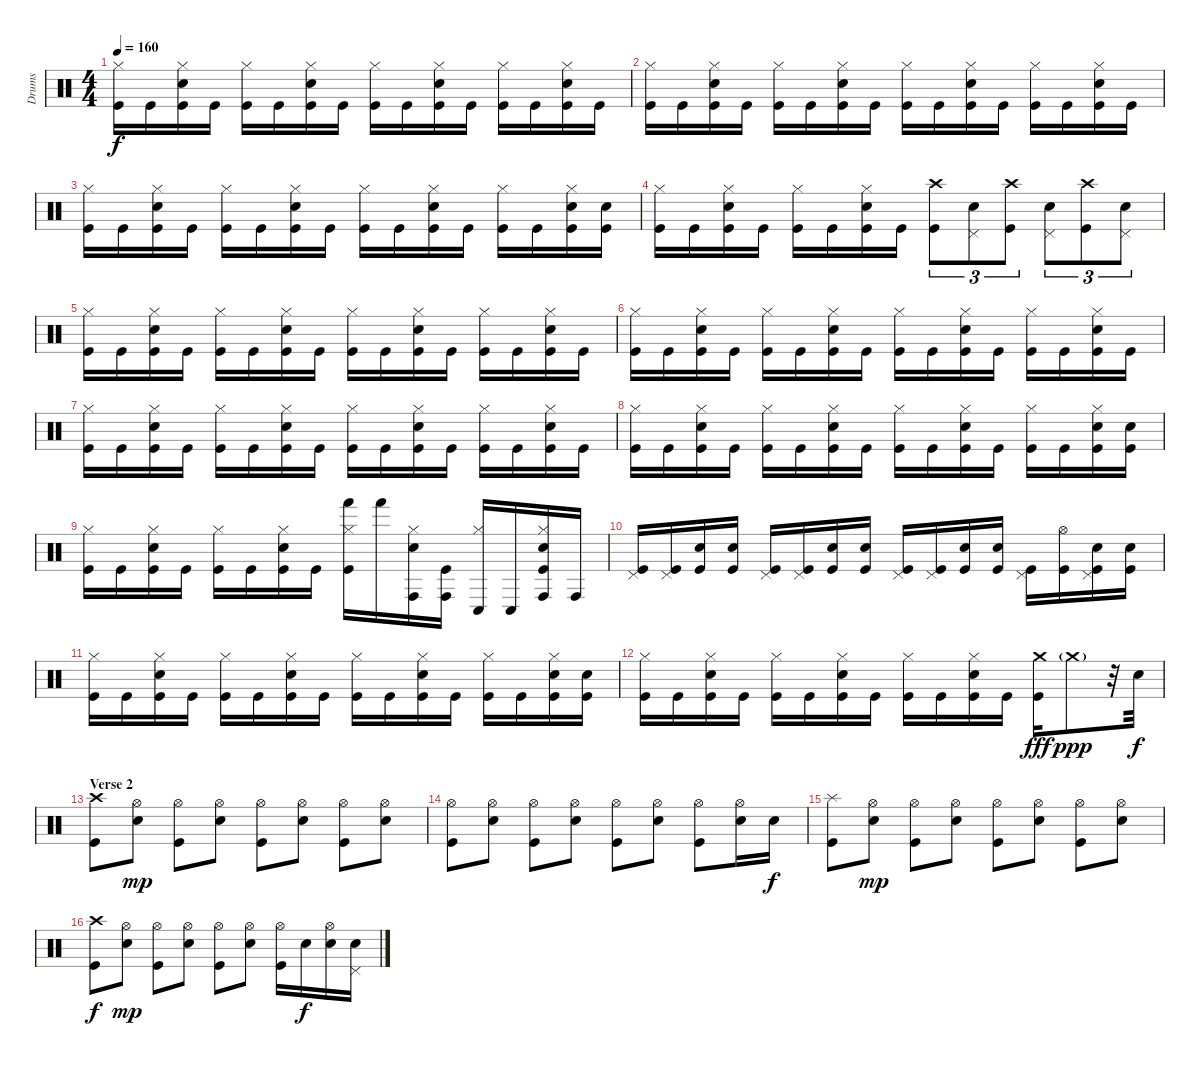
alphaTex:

\track ("Drums" "Drums") {instrument percussion}
\staff {score}
\articulation defaults
\ts (4 4)
\tempo 160
\clef neutral
\ks c
("Hi-Hat (closed)" "Kick (hit)").16{dy f} "Kick (hit)".16 ("Hi-Hat (closed)" "Electric Snare (hit)" "Kick (hit)").16 "Kick (hit)".16 ("Hi-Hat (closed)" "Kick (hit)").16 "Kick (hit)".16 ("Hi-Hat (closed)" "Electric Snare (hit)" "Kick (hit)").16 "Kick (hit)".16 ("Hi-Hat (closed)" "Kick (hit)").16 "Kick (hit)".16 ("Hi-Hat (closed)" "Electric Snare (hit)" "Kick (hit)").16 "Kick (hit)".16 ("Hi-Hat (closed)" "Kick (hit)").16 "Kick (hit)".16 ("Hi-Hat (closed)" "Electric Snare (hit)" "Kick (hit)").16 "Kick (hit)".16 |
("Hi-Hat (closed)" "Kick (hit)").16 "Kick (hit)".16 ("Hi-Hat (closed)" "Electric Snare (hit)" "Kick (hit)").16 "Kick (hit)".16 ("Hi-Hat (closed)" "Kick (hit)").16 "Kick (hit)".16 ("Hi-Hat (closed)" "Electric Snare (hit)" "Kick (hit)").16 "Kick (hit)".16 ("Hi-Hat (closed)" "Kick (hit)").16 "Kick (hit)".16 ("Hi-Hat (closed)" "Electric Snare (hit)" "Kick (hit)").16 "Kick (hit)".16 ("Hi-Hat (closed)" "Kick (hit)").16 "Kick (hit)".16 ("Hi-Hat (closed)" "Electric Snare (hit)" "Kick (hit)").16 "Kick (hit)".16 |
("Hi-Hat (closed)" "Kick (hit)").16 "Kick (hit)".16 ("Hi-Hat (closed)" "Electric Snare (hit)" "Kick (hit)").16 "Kick (hit)".16 ("Hi-Hat (closed)" "Kick (hit)").16 "Kick (hit)".16 ("Hi-Hat (closed)" "Electric Snare (hit)" "Kick (hit)").16 "Kick (hit)".16 ("Hi-Hat (closed)" "Kick (hit)").16 "Kick (hit)".16 ("Hi-Hat (closed)" "Electric Snare (hit)" "Kick (hit)").16 "Kick (hit)".16 ("Hi-Hat (closed)" "Kick (hit)").16 "Kick (hit)".16 ("Hi-Hat (closed)" "Electric Snare (hit)" "Kick (hit)").16 ("Electric Snare (hit)" "Kick (hit)").16 |
("Hi-Hat (closed)" "Kick (hit)").16 "Kick (hit)".16 ("Hi-Hat (closed)" "Electric Snare (hit)" "Kick (hit)").16 "Kick (hit)".16 ("Hi-Hat (closed)" "Kick (hit)").16 "Kick (hit)".16 ("Hi-Hat (closed)" "Electric Snare (hit)" "Kick (hit)").16 "Kick (hit)".16 ("Crash high (hit)" "Kick (hit)").8{tu (3 2)} ("Pedal Hi-Hat (hit)" "Electric Snare (hit)").8{tu (3 2)} ("Crash high (hit)" "Kick (hit)").8{tu (3 2)} ("Pedal Hi-Hat (hit)" "Electric Snare (hit)").8{tu (3 2)} ("Crash high (hit)" "Kick (hit)").8{tu (3 2)} ("Pedal Hi-Hat (hit)" "Electric Snare (hit)").8{tu (3 2)} |
("Hi-Hat (closed)" "Kick (hit)").16 "Kick (hit)".16 ("Hi-Hat (closed)" "Electric Snare (hit)" "Kick (hit)").16 "Kick (hit)".16 ("Hi-Hat (closed)" "Kick (hit)").16 "Kick (hit)".16 ("Hi-Hat (closed)" "Electric Snare (hit)" "Kick (hit)").16 "Kick (hit)".16 ("Hi-Hat (closed)" "Kick (hit)").16 "Kick (hit)".16 ("Hi-Hat (closed)" "Electric Snare (hit)" "Kick (hit)").16 "Kick (hit)".16 ("Hi-Hat (closed)" "Kick (hit)").16 "Kick (hit)".16 ("Hi-Hat (closed)" "Electric Snare (hit)" "Kick (hit)").16 "Kick (hit)".16 |
("Hi-Hat (closed)" "Kick (hit)").16 "Kick (hit)".16 ("Hi-Hat (closed)" "Electric Snare (hit)" "Kick (hit)").16 "Kick (hit)".16 ("Hi-Hat (closed)" "Kick (hit)").16 "Kick (hit)".16 ("Hi-Hat (closed)" "Electric Snare (hit)" "Kick (hit)").16 "Kick (hit)".16 ("Hi-Hat (closed)" "Kick (hit)").16 "Kick (hit)".16 ("Hi-Hat (closed)" "Electric Snare (hit)" "Kick (hit)").16 "Kick (hit)".16 ("Hi-Hat (closed)" "Kick (hit)").16 "Kick (hit)".16 ("Hi-Hat (closed)" "Electric Snare (hit)" "Kick (hit)").16 "Kick (hit)".16 |
("Hi-Hat (closed)" "Kick (hit)").16 "Kick (hit)".16 ("Hi-Hat (closed)" "Electric Snare (hit)" "Kick (hit)").16 "Kick (hit)".16 ("Hi-Hat (closed)" "Kick (hit)").16 "Kick (hit)".16 ("Hi-Hat (closed)" "Electric Snare (hit)" "Kick (hit)").16 "Kick (hit)".16 ("Hi-Hat (closed)" "Kick (hit)").16 "Kick (hit)".16 ("Hi-Hat (closed)" "Electric Snare (hit)" "Kick (hit)").16 "Kick (hit)".16 ("Hi-Hat (closed)" "Kick (hit)").16 "Kick (hit)".16 ("Hi-Hat (closed)" "Electric Snare (hit)" "Kick (hit)").16 "Kick (hit)".16 |
("Hi-Hat (closed)" "Kick (hit)").16 "Kick (hit)".16 ("Hi-Hat (closed)" "Electric Snare (hit)" "Kick (hit)").16 "Kick (hit)".16 ("Hi-Hat (closed)" "Kick (hit)").16 "Kick (hit)".16 ("Hi-Hat (closed)" "Electric Snare (hit)" "Kick (hit)").16 "Kick (hit)".16 ("Hi-Hat (closed)" "Kick (hit)").16 "Kick (hit)".16 ("Hi-Hat (closed)" "Electric Snare (hit)" "Kick (hit)").16 "Kick (hit)".16 ("Hi-Hat (closed)" "Kick (hit)").16 "Kick (hit)".16 ("Hi-Hat (closed)" "Electric Snare (hit)" "Kick (hit)").16 ("Electric Snare (hit)" "Kick (hit)").16 |
("Hi-Hat (closed)" "Kick (hit)").16 "Kick (hit)".16 ("Hi-Hat (closed)" "Electric Snare (hit)" "Kick (hit)").16 "Kick (hit)".16 ("Hi-Hat (closed)" "Kick (hit)").16 "Kick (hit)".16 ("Hi-Hat (closed)" "Electric Snare (hit)" "Kick (hit)").16 "Kick (hit)".16 ("Hi-Hat (closed)" "Hand (hit)" "Kick (hit)").16 "Hand (hit)".16 ("Hi-Hat (closed)" "Electric Snare (hit)" "Conga high (hit)").16 ("Conga high (hit)" "Kick (hit)").16 ("Hi-Hat (closed)" "Conga low (hit)").16 "Conga low (hit)".16 ("Hi-Hat (closed)" "Electric Snare (hit)" "Conga high (hit)" "Kick (hit)").16 "Conga high (hit)".16 |
("Pedal Hi-Hat (hit)" "Kick (hit)").16 ("Pedal Hi-Hat (hit)" "Kick (hit)").16 ("Electric Snare (hit)" "Kick (hit)").16 ("Electric Snare (hit)" "Kick (hit)").16 ("Pedal Hi-Hat (hit)" "Kick (hit)").16 ("Pedal Hi-Hat (hit)" "Kick (hit)").16 ("Electric Snare (hit)" "Kick (hit)").16 ("Electric Snare (hit)" "Kick (hit)").16 ("Pedal Hi-Hat (hit)" "Kick (hit)").16 ("Pedal Hi-Hat (hit)" "Kick (hit)").16 ("Electric Snare (hit)" "Kick (hit)").16 ("Electric Snare (hit)" "Kick (hit)").16 ("Pedal Hi-Hat (hit)" "Kick (hit)").16 ("Hi-Hat (open)" "Kick (hit)").16 ("Pedal Hi-Hat (hit)" "Electric Snare (hit)" "Kick (hit)").16 ("Electric Snare (hit)" "Kick (hit)").16 |
("Hi-Hat (closed)" "Kick (hit)").16 "Kick (hit)".16 ("Hi-Hat (closed)" "Electric Snare (hit)" "Kick (hit)").16 "Kick (hit)".16 ("Hi-Hat (closed)" "Kick (hit)").16 "Kick (hit)".16 ("Hi-Hat (closed)" "Electric Snare (hit)" "Kick (hit)").16 "Kick (hit)".16 ("Hi-Hat (closed)" "Kick (hit)").16 "Kick (hit)".16 ("Hi-Hat (closed)" "Electric Snare (hit)" "Kick (hit)").16 "Kick (hit)".16 ("Hi-Hat (closed)" "Kick (hit)").16 "Kick (hit)".16 ("Hi-Hat (closed)" "Electric Snare (hit)" "Kick (hit)").16 ("Electric Snare (hit)" "Kick (hit)").16 |
("Hi-Hat (closed)" "Kick (hit)").16 "Kick (hit)".16 ("Hi-Hat (closed)" "Electric Snare (hit)" "Kick (hit)").16 "Kick (hit)".16 ("Hi-Hat (closed)" "Kick (hit)").16 "Kick (hit)".16 ("Hi-Hat (closed)" "Electric Snare (hit)" "Kick (hit)").16 "Kick (hit)".16 ("Hi-Hat (closed)" "Kick (hit)").16 "Kick (hit)".16 ("Hi-Hat (closed)" "Electric Snare (hit)" "Kick (hit)").16 "Kick (hit)".16 ("Crash medium (hit)" "Kick (hit)").16{dy fff} "Crash medium (hit)"{g}.8{dy ppp} r.32 "Electric Snare (hit)".32{dy f} |
\section ("" "Verse 2")
("Crash high (hit)" "Kick (hit)").8 ("Hi-Hat (open)" "Electric Snare (hit)").8{dy mp} ("Hi-Hat (open)" "Kick (hit)").8 ("Hi-Hat (open)" "Electric Snare (hit)").8 ("Hi-Hat (open)" "Kick (hit)").8 ("Hi-Hat (open)" "Electric Snare (hit)").8 ("Hi-Hat (open)" "Kick (hit)").8 ("Hi-Hat (open)" "Electric Snare (hit)").8 |
("Hi-Hat (open)" "Kick (hit)").8 ("Hi-Hat (open)" "Electric Snare (hit)").8 ("Hi-Hat (open)" "Kick (hit)").8 ("Hi-Hat (open)" "Electric Snare (hit)").8 ("Hi-Hat (open)" "Kick (hit)").8 ("Hi-Hat (open)" "Electric Snare (hit)").8 ("Hi-Hat (open)" "Kick (hit)").8 ("Hi-Hat (open)" "Electric Snare (hit)").16 "Electric Snare (hit)".16{dy f} |
("Splash (hit)" "Kick (hit)").8 ("Hi-Hat (open)" "Electric Snare (hit)").8{dy mp} ("Hi-Hat (open)" "Kick (hit)").8 ("Hi-Hat (open)" "Electric Snare (hit)").8 ("Hi-Hat (open)" "Kick (hit)").8 ("Hi-Hat (open)" "Electric Snare (hit)").8 ("Hi-Hat (open)" "Kick (hit)").8 ("Hi-Hat (open)" "Electric Snare (hit)").8 |
("Crash high (hit)" "Kick (hit)").8{dy f} ("Hi-Hat (open)" "Electric Snare (hit)").8{dy mp} ("Hi-Hat (open)" "Kick (hit)").8 ("Hi-Hat (open)" "Electric Snare (hit)").8 ("Hi-Hat (open)" "Kick (hit)").8 ("Hi-Hat (open)" "Electric Snare (hit)").8 ("Hi-Hat (open)" "Kick (hit)").16 "Electric Snare (hit)".16{dy f} ("Hi-Hat (open)" "Electric Snare (hit)").16 ("Pedal Hi-Hat (hit)" "Electric Snare (hit)").16
